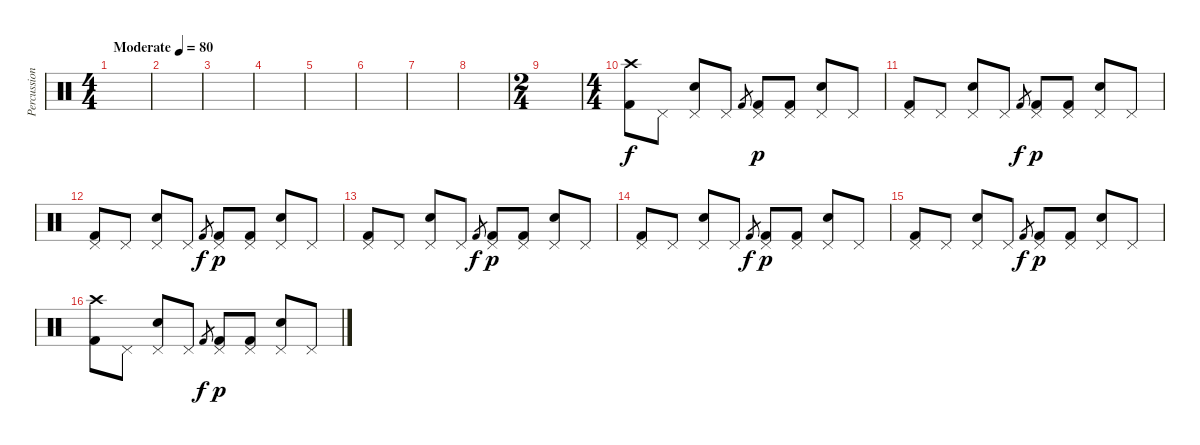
\track ("Percussion" "Percussion") {instrument percussion}
\staff {score}
\articulation defaults
\ts (4 4)
\tempo (80 "Moderate")
\clef neutral
\ks c
|
|
|
|
|
|
|
|
\ts (2 4)
|
\ts (4 4)
("Crash high (hit)" "Kick (hit) 2").8 "Pedal Hi-Hat (hit)".8 ("Pedal Hi-Hat (hit)" "Electric Snare (hit)").8 "Pedal Hi-Hat (hit)".8 "Kick (hit) 2".8{gr dy f} ("Pedal Hi-Hat (hit)" "Kick (hit) 2").8{dy p} ("Pedal Hi-Hat (hit)" "Kick (hit) 2").8 ("Pedal Hi-Hat (hit)" "Electric Snare (hit)").8 "Pedal Hi-Hat (hit)".8 |
("Pedal Hi-Hat (hit)" "Kick (hit) 2").8 "Pedal Hi-Hat (hit)".8 ("Pedal Hi-Hat (hit)" "Electric Snare (hit)").8 "Pedal Hi-Hat (hit)".8 "Kick (hit) 2".8{gr dy f} ("Pedal Hi-Hat (hit)" "Kick (hit) 2").8{dy p} ("Pedal Hi-Hat (hit)" "Kick (hit) 2").8 ("Pedal Hi-Hat (hit)" "Electric Snare (hit)").8 "Pedal Hi-Hat (hit)".8 |
("Pedal Hi-Hat (hit)" "Kick (hit) 2").8 "Pedal Hi-Hat (hit)".8 ("Pedal Hi-Hat (hit)" "Electric Snare (hit)").8 "Pedal Hi-Hat (hit)".8 "Kick (hit) 2".8{gr dy f} ("Pedal Hi-Hat (hit)" "Kick (hit) 2").8{dy p} ("Pedal Hi-Hat (hit)" "Kick (hit) 2").8 ("Pedal Hi-Hat (hit)" "Electric Snare (hit)").8 "Pedal Hi-Hat (hit)".8 |
("Pedal Hi-Hat (hit)" "Kick (hit) 2").8 "Pedal Hi-Hat (hit)".8 ("Pedal Hi-Hat (hit)" "Electric Snare (hit)").8 "Pedal Hi-Hat (hit)".8 "Kick (hit) 2".8{gr dy f} ("Pedal Hi-Hat (hit)" "Kick (hit) 2").8{dy p} ("Pedal Hi-Hat (hit)" "Kick (hit) 2").8 ("Pedal Hi-Hat (hit)" "Electric Snare (hit)").8 "Pedal Hi-Hat (hit)".8 |
("Pedal Hi-Hat (hit)" "Kick (hit) 2").8 "Pedal Hi-Hat (hit)".8 ("Pedal Hi-Hat (hit)" "Electric Snare (hit)").8 "Pedal Hi-Hat (hit)".8 "Kick (hit) 2".8{gr dy f} ("Pedal Hi-Hat (hit)" "Kick (hit) 2").8{dy p} ("Pedal Hi-Hat (hit)" "Kick (hit) 2").8 ("Pedal Hi-Hat (hit)" "Electric Snare (hit)").8 "Pedal Hi-Hat (hit)".8 |
("Pedal Hi-Hat (hit)" "Kick (hit) 2").8 "Pedal Hi-Hat (hit)".8 ("Pedal Hi-Hat (hit)" "Electric Snare (hit)").8 "Pedal Hi-Hat (hit)".8 "Kick (hit) 2".8{gr dy f} ("Pedal Hi-Hat (hit)" "Kick (hit) 2").8{dy p} ("Pedal Hi-Hat (hit)" "Kick (hit) 2").8 ("Pedal Hi-Hat (hit)" "Electric Snare (hit)").8 "Pedal Hi-Hat (hit)".8 |
("Crash high (hit)" "Kick (hit) 2").8 "Pedal Hi-Hat (hit)".8 ("Pedal Hi-Hat (hit)" "Electric Snare (hit)").8 "Pedal Hi-Hat (hit)".8 "Kick (hit) 2".8{gr dy f} ("Pedal Hi-Hat (hit)" "Kick (hit) 2").8{dy p} ("Pedal Hi-Hat (hit)" "Kick (hit) 2").8 ("Pedal Hi-Hat (hit)" "Electric Snare (hit)").8 "Pedal Hi-Hat (hit)".8
